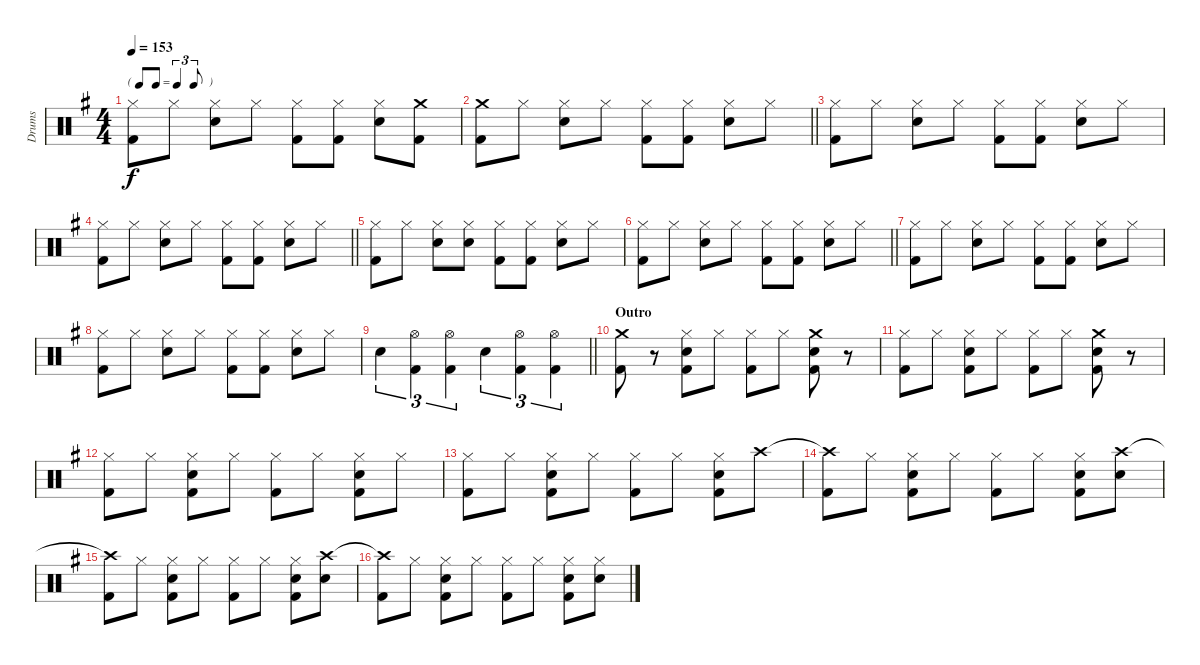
\track ("Drums" "Drums") {instrument percussion}
\staff {score}
\articulation defaults
\ts (4 4)
\tf triplet8th
\tempo 153
\clef neutral
\ks g
("Hi-Hat (closed)" "Kick (hit) 2").8{dy f} "Hi-Hat (closed)".8 ("Hi-Hat (closed)" "Electric Snare (hit)").8 "Hi-Hat (closed)".8 ("Hi-Hat (closed)" "Kick (hit) 2").8 ("Hi-Hat (closed)" "Kick (hit) 2").8 ("Hi-Hat (closed)" "Electric Snare (hit)").8 ("Crash medium (hit)" "Kick (hit) 2").8 |
\barLineRight lightlight
("Crash medium (hit)" "Kick (hit) 2").8 "Hi-Hat (closed)".8 ("Hi-Hat (closed)" "Electric Snare (hit)").8 "Hi-Hat (closed)".8 ("Hi-Hat (closed)" "Kick (hit) 2").8 ("Hi-Hat (closed)" "Kick (hit) 2").8 ("Hi-Hat (closed)" "Electric Snare (hit)").8 "Hi-Hat (closed)".8 |
("Hi-Hat (closed)" "Kick (hit) 2").8 "Hi-Hat (closed)".8 ("Hi-Hat (closed)" "Electric Snare (hit)").8 "Hi-Hat (closed)".8 ("Hi-Hat (closed)" "Kick (hit) 2").8 ("Hi-Hat (closed)" "Kick (hit) 2").8 ("Hi-Hat (closed)" "Electric Snare (hit)").8 "Hi-Hat (closed)".8 |
\barLineRight lightlight
("Hi-Hat (closed)" "Kick (hit) 2").8 "Hi-Hat (closed)".8 ("Hi-Hat (closed)" "Electric Snare (hit)").8 "Hi-Hat (closed)".8 ("Hi-Hat (closed)" "Kick (hit) 2").8 ("Hi-Hat (closed)" "Kick (hit) 2").8 ("Hi-Hat (closed)" "Electric Snare (hit)").8 "Hi-Hat (closed)".8 |
("Hi-Hat (closed)" "Kick (hit) 2").8 "Hi-Hat (closed)".8 ("Hi-Hat (closed)" "Electric Snare (hit)").8 ("Hi-Hat (closed)" "Electric Snare (hit)").8 ("Hi-Hat (closed)" "Kick (hit) 2").8 ("Hi-Hat (closed)" "Kick (hit) 2").8 ("Hi-Hat (closed)" "Electric Snare (hit)").8 "Hi-Hat (closed)".8 |
\barLineRight lightlight
("Hi-Hat (closed)" "Kick (hit) 2").8 "Hi-Hat (closed)".8 ("Hi-Hat (closed)" "Electric Snare (hit)").8 "Hi-Hat (closed)".8 ("Hi-Hat (closed)" "Kick (hit) 2").8 ("Hi-Hat (closed)" "Kick (hit) 2").8 ("Hi-Hat (closed)" "Electric Snare (hit)").8 "Hi-Hat (closed)".8 |
("Hi-Hat (closed)" "Kick (hit) 2").8 "Hi-Hat (closed)".8 ("Hi-Hat (closed)" "Electric Snare (hit)").8 "Hi-Hat (closed)".8 ("Hi-Hat (closed)" "Kick (hit) 2").8 ("Hi-Hat (closed)" "Kick (hit) 2").8 ("Hi-Hat (closed)" "Electric Snare (hit)").8 "Hi-Hat (closed)".8 |
("Hi-Hat (closed)" "Kick (hit) 2").8 "Hi-Hat (closed)".8 ("Hi-Hat (closed)" "Electric Snare (hit)").8 "Hi-Hat (closed)".8 ("Hi-Hat (closed)" "Kick (hit) 2").8 ("Hi-Hat (closed)" "Kick (hit) 2").8 ("Hi-Hat (closed)" "Electric Snare (hit)").8 "Hi-Hat (closed)".8 |
\barLineRight lightlight "Electric Snare (hit)".4{tu (3 2)}
("Hi-Hat (open)" "Kick (hit) 2").4{tu (3 2)} ("Hi-Hat (open)" "Kick (hit) 2").4{tu (3 2)} "Electric Snare (hit)".4{tu (3 2)} ("Hi-Hat (open)" "Kick (hit) 2").4{tu (3 2)} ("Hi-Hat (open)" "Kick (hit) 2").4{tu (3 2)} |
\section ("" "Outro")
("Crash medium (hit)" "Kick (hit) 2").8 r.8 ("Hi-Hat (closed)" "Electric Snare (hit)" "Kick (hit) 2").8 "Hi-Hat (closed)".8 ("Hi-Hat (closed)" "Kick (hit) 2").8 "Hi-Hat (closed)".8 ("Crash medium (hit)" "Electric Snare (hit)" "Kick (hit) 2").8 r.8 |
("Hi-Hat (closed)" "Kick (hit) 2").8 "Hi-Hat (closed)".8 ("Hi-Hat (closed)" "Electric Snare (hit)" "Kick (hit) 2").8 "Hi-Hat (closed)".8 ("Hi-Hat (closed)" "Kick (hit) 2").8 "Hi-Hat (closed)".8 ("Crash medium (hit)" "Electric Snare (hit)" "Kick (hit) 2").8 r.8 |
("Hi-Hat (closed)" "Kick (hit) 2").8 "Hi-Hat (closed)".8 ("Hi-Hat (closed)" "Electric Snare (hit)" "Kick (hit) 2").8 "Hi-Hat (closed)".8 ("Hi-Hat (closed)" "Kick (hit) 2").8 "Hi-Hat (closed)".8 ("Hi-Hat (closed)" "Electric Snare (hit)" "Kick (hit) 2").8 "Hi-Hat (closed)".8 |
("Hi-Hat (closed)" "Kick (hit) 2").8 "Hi-Hat (closed)".8 ("Hi-Hat (closed)" "Electric Snare (hit)" "Kick (hit) 2").8 "Hi-Hat (closed)".8 ("Hi-Hat (closed)" "Kick (hit) 2").8 "Hi-Hat (closed)".8 ("Hi-Hat (closed)" "Electric Snare (hit)" "Kick (hit) 2").8 "Crash high (hit)".8 |
("Crash high (hit)"{t} "Kick (hit) 2").8 "Hi-Hat (closed)".8 ("Hi-Hat (closed)" "Electric Snare (hit)" "Kick (hit) 2").8 "Hi-Hat (closed)".8 ("Hi-Hat (closed)" "Kick (hit) 2").8 "Hi-Hat (closed)".8 ("Hi-Hat (closed)" "Electric Snare (hit)" "Kick (hit) 2").8 ("Crash high (hit)" "Electric Snare (hit)").8 |
("Crash high (hit)"{t} "Kick (hit) 2").8 "Hi-Hat (closed)".8 ("Hi-Hat (closed)" "Electric Snare (hit)" "Kick (hit) 2").8 "Hi-Hat (closed)".8 ("Hi-Hat (closed)" "Kick (hit) 2").8 "Hi-Hat (closed)".8 ("Hi-Hat (closed)" "Electric Snare (hit)" "Kick (hit) 2").8 ("Crash high (hit)" "Electric Snare (hit)").8 |
("Crash high (hit)"{t} "Kick (hit) 2").8 "Hi-Hat (closed)".8 ("Hi-Hat (closed)" "Electric Snare (hit)" "Kick (hit) 2").8 "Hi-Hat (closed)".8 ("Hi-Hat (closed)" "Kick (hit) 2").8 "Hi-Hat (closed)".8 ("Hi-Hat (closed)" "Electric Snare (hit)" "Kick (hit) 2").8 ("Hi-Hat (closed)" "Electric Snare (hit)").8
